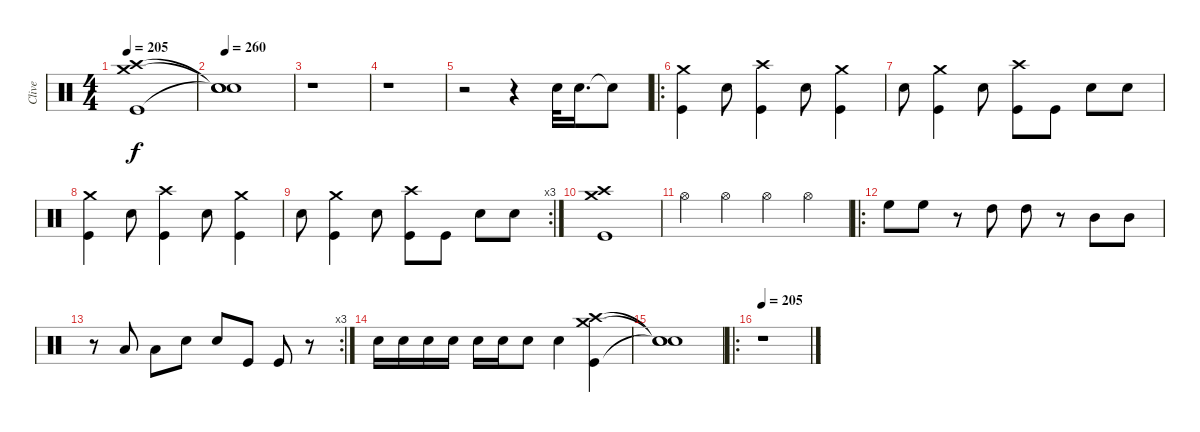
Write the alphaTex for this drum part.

\track ("Clive" "Clive") {instrument percussion}
\staff {score}
\articulation defaults
\ts (4 4)
\tempo 205
\clef neutral
\ks c
("Crash medium (hit)" "Crash high (hit)" "Kick (hit)").1{dy f} |
\tempo 260
("Snare (hit)"{t} "Snare (hit)"{t} "Snare (hit)"{t}).1 |
r.1 |
r.1 |
r.2 r.4 "Snare (hit) 2".32 "Snare (hit) 2".16{d} "Snare (hit)"{t}.8 |
\ro
("Crash medium (hit)" "Kick (hit)").4 "Snare (hit) 2".8 ("Crash high (hit)" "Kick (hit)").4 "Snare (hit) 2".8 ("Crash medium (hit)" "Kick (hit)").4 |
"Snare (hit) 2".8 ("Crash medium (hit)" "Kick (hit)").4 "Snare (hit) 2".8 ("Crash high (hit)" "Kick (hit)").8 "Kick (hit)".8 "Snare (hit) 2".8 "Snare (hit) 2".8 |
("Crash medium (hit)" "Kick (hit)").4 "Snare (hit) 2".8 ("Crash high (hit)" "Kick (hit)").4 "Snare (hit) 2".8 ("Crash medium (hit)" "Kick (hit)").4 |
\rc 3 "Snare (hit) 2".8
("Crash medium (hit)" "Kick (hit)").4 "Snare (hit) 2".8 ("Crash high (hit)" "Kick (hit)").8 "Kick (hit)".8 "Snare (hit) 2".8 "Snare (hit) 2".8 |
("Crash medium (hit)" "Crash high (hit)" "Kick (hit)").1 |
"Hi-Hat (open)".4 "Hi-Hat (open)".4 "Hi-Hat (open)".4 "Hi-Hat (open)".4 |
\ro "High Floor Tom (hit)".8 "High Floor Tom (hit)".8
r.8 "High Tom (hit)".8 "High Tom (hit)".8 r.8 "Mid Tom (hit)".8 "Mid Tom (hit)".8 |
\rc 3
r.8 "Low Tom (hit)".8 "Low Tom (hit)".8 "Snare (hit) 2".8 "Snare (hit) 2".8 "Kick (hit)".8 "Kick (hit)".8 r.8 |
"Snare (hit) 2".16 "Snare (hit) 2".16 "Snare (hit) 2".16 "Snare (hit) 2".16 "Snare (hit) 2".16 "Snare (hit) 2".16 "Snare (hit) 2".8 "Snare (hit) 2".4 ("Crash medium (hit)" "Crash high (hit)" "Kick (hit)").4 |
("Snare (hit)"{t} "Snare (hit)"{t} "Snare (hit)"{t}).1 |
\ro
\tempo 205
r.1
